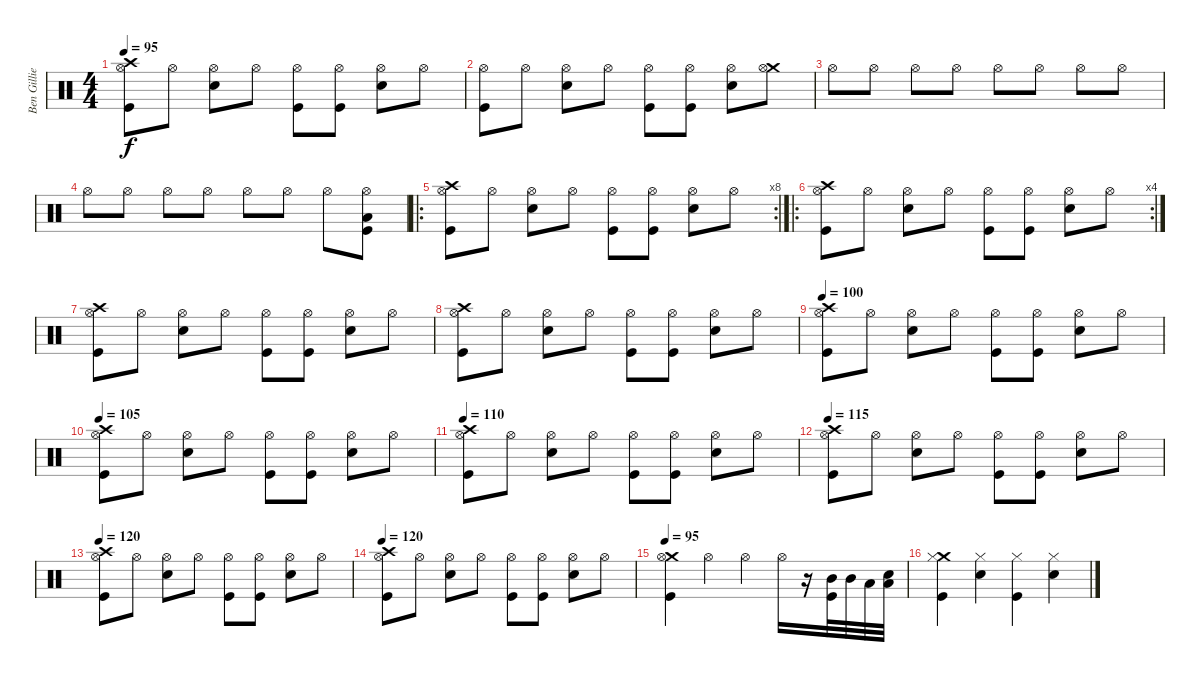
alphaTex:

\track ("Ben Gillies (drums)" "Ben Gillie") {instrument percussion}
\staff {score}
\articulation defaults
\ts (4 4)
\tempo 95
\clef neutral
\ks c
("Crash high (hit)" "Kick (hit)" "Hi-Hat (open)").8{dy f} "Hi-Hat (open)".8 ("Snare (hit) 2" "Hi-Hat (open)").8 "Hi-Hat (open)".8 ("Kick (hit)" "Hi-Hat (open)").8 ("Kick (hit)" "Hi-Hat (open)").8 ("Snare (hit) 2" "Hi-Hat (open)").8 "Hi-Hat (open)".8 |
("Kick (hit)" "Hi-Hat (open)").8 "Hi-Hat (open)".8 ("Snare (hit) 2" "Hi-Hat (open)").8 "Hi-Hat (open)".8 ("Kick (hit)" "Hi-Hat (open)").8 ("Kick (hit)" "Hi-Hat (open)").8 ("Snare (hit) 2" "Hi-Hat (open)").8 ("Crash medium (hit)" "Hi-Hat (open)").8 |
"Hi-Hat (open)".8 "Hi-Hat (open)".8 "Hi-Hat (open)".8 "Hi-Hat (open)".8 "Hi-Hat (open)".8 "Hi-Hat (open)".8 "Hi-Hat (open)".8 "Hi-Hat (open)".8 |
"Hi-Hat (open)".8 "Hi-Hat (open)".8 "Hi-Hat (open)".8 "Hi-Hat (open)".8 "Hi-Hat (open)".8 "Hi-Hat (open)".8 "Hi-Hat (open)".8 ("Kick (hit)" "Low Tom (hit)" "Hi-Hat (open)").8 |
\ro
\rc 8
("Crash high (hit)" "Kick (hit)" "Hi-Hat (open)").8 "Hi-Hat (open)".8 ("Snare (hit) 2" "Hi-Hat (open)").8 "Hi-Hat (open)".8 ("Kick (hit)" "Hi-Hat (open)").8 ("Kick (hit)" "Hi-Hat (open)").8 ("Snare (hit) 2" "Hi-Hat (open)").8 "Hi-Hat (open)".8 |
\ro
\rc 4
("Crash high (hit)" "Kick (hit)" "Hi-Hat (open)").8 "Hi-Hat (open)".8 ("Snare (hit) 2" "Hi-Hat (open)").8 "Hi-Hat (open)".8 ("Kick (hit)" "Hi-Hat (open)").8 ("Kick (hit)" "Hi-Hat (open)").8 ("Snare (hit) 2" "Hi-Hat (open)").8 "Hi-Hat (open)".8 |
("Crash high (hit)" "Kick (hit)" "Hi-Hat (open)").8 "Hi-Hat (open)".8 ("Snare (hit) 2" "Hi-Hat (open)").8 "Hi-Hat (open)".8 ("Kick (hit)" "Hi-Hat (open)").8 ("Kick (hit)" "Hi-Hat (open)").8 ("Snare (hit) 2" "Hi-Hat (open)").8 "Hi-Hat (open)".8 |
("Crash high (hit)" "Kick (hit)" "Hi-Hat (open)").8 "Hi-Hat (open)".8 ("Snare (hit) 2" "Hi-Hat (open)").8 "Hi-Hat (open)".8 ("Kick (hit)" "Hi-Hat (open)").8 ("Kick (hit)" "Hi-Hat (open)").8 ("Snare (hit) 2" "Hi-Hat (open)").8 "Hi-Hat (open)".8 |
\tempo 100
("Crash high (hit)" "Kick (hit)" "Hi-Hat (open)").8 "Hi-Hat (open)".8 ("Snare (hit) 2" "Hi-Hat (open)").8 "Hi-Hat (open)".8 ("Kick (hit)" "Hi-Hat (open)").8 ("Kick (hit)" "Hi-Hat (open)").8 ("Snare (hit) 2" "Hi-Hat (open)").8 "Hi-Hat (open)".8 |
\tempo 105
("Crash high (hit)" "Kick (hit)" "Hi-Hat (open)").8 "Hi-Hat (open)".8 ("Snare (hit) 2" "Hi-Hat (open)").8 "Hi-Hat (open)".8 ("Kick (hit)" "Hi-Hat (open)").8 ("Kick (hit)" "Hi-Hat (open)").8 ("Snare (hit) 2" "Hi-Hat (open)").8 "Hi-Hat (open)".8 |
\tempo 110
("Crash high (hit)" "Kick (hit)" "Hi-Hat (open)").8 "Hi-Hat (open)".8 ("Snare (hit) 2" "Hi-Hat (open)").8 "Hi-Hat (open)".8 ("Kick (hit)" "Hi-Hat (open)").8 ("Kick (hit)" "Hi-Hat (open)").8 ("Snare (hit) 2" "Hi-Hat (open)").8 "Hi-Hat (open)".8 |
\tempo 115
("Crash high (hit)" "Kick (hit)" "Hi-Hat (open)").8 "Hi-Hat (open)".8 ("Snare (hit) 2" "Hi-Hat (open)").8 "Hi-Hat (open)".8 ("Kick (hit)" "Hi-Hat (open)").8 ("Kick (hit)" "Hi-Hat (open)").8 ("Snare (hit) 2" "Hi-Hat (open)").8 "Hi-Hat (open)".8 |
\tempo 120
("Crash high (hit)" "Kick (hit)" "Hi-Hat (open)").8 "Hi-Hat (open)".8 ("Snare (hit) 2" "Hi-Hat (open)").8 "Hi-Hat (open)".8 ("Kick (hit)" "Hi-Hat (open)").8 ("Kick (hit)" "Hi-Hat (open)").8 ("Snare (hit) 2" "Hi-Hat (open)").8 "Hi-Hat (open)".8 |
\tempo 120
("Crash high (hit)" "Kick (hit)" "Hi-Hat (open)").8 "Hi-Hat (open)".8 ("Snare (hit) 2" "Hi-Hat (open)").8 "Hi-Hat (open)".8 ("Kick (hit)" "Hi-Hat (open)").8 ("Kick (hit)" "Hi-Hat (open)").8 ("Snare (hit) 2" "Hi-Hat (open)").8 "Hi-Hat (open)".8 |
\tempo 95
("Crash medium (hit)" "Hi-Hat (open)" "Kick (hit)").4 "Hi-Hat (open)".4 "Hi-Hat (open)".4 "Hi-Hat (open)".16 r.16 ("Kick (hit)" "Mid Tom (hit)").32 "Mid Tom (hit)".32 "Low Tom (hit)".32 ("Snare (hit) 2" "Low Tom (hit)").32 |
("Kick (hit)" "Crash medium (hit)" "Hi-Hat (closed)").4 ("Snare (hit) 2" "Hi-Hat (closed)").4 ("Kick (hit)" "Hi-Hat (closed)").4 ("Snare (hit) 2" "Hi-Hat (closed)").4
